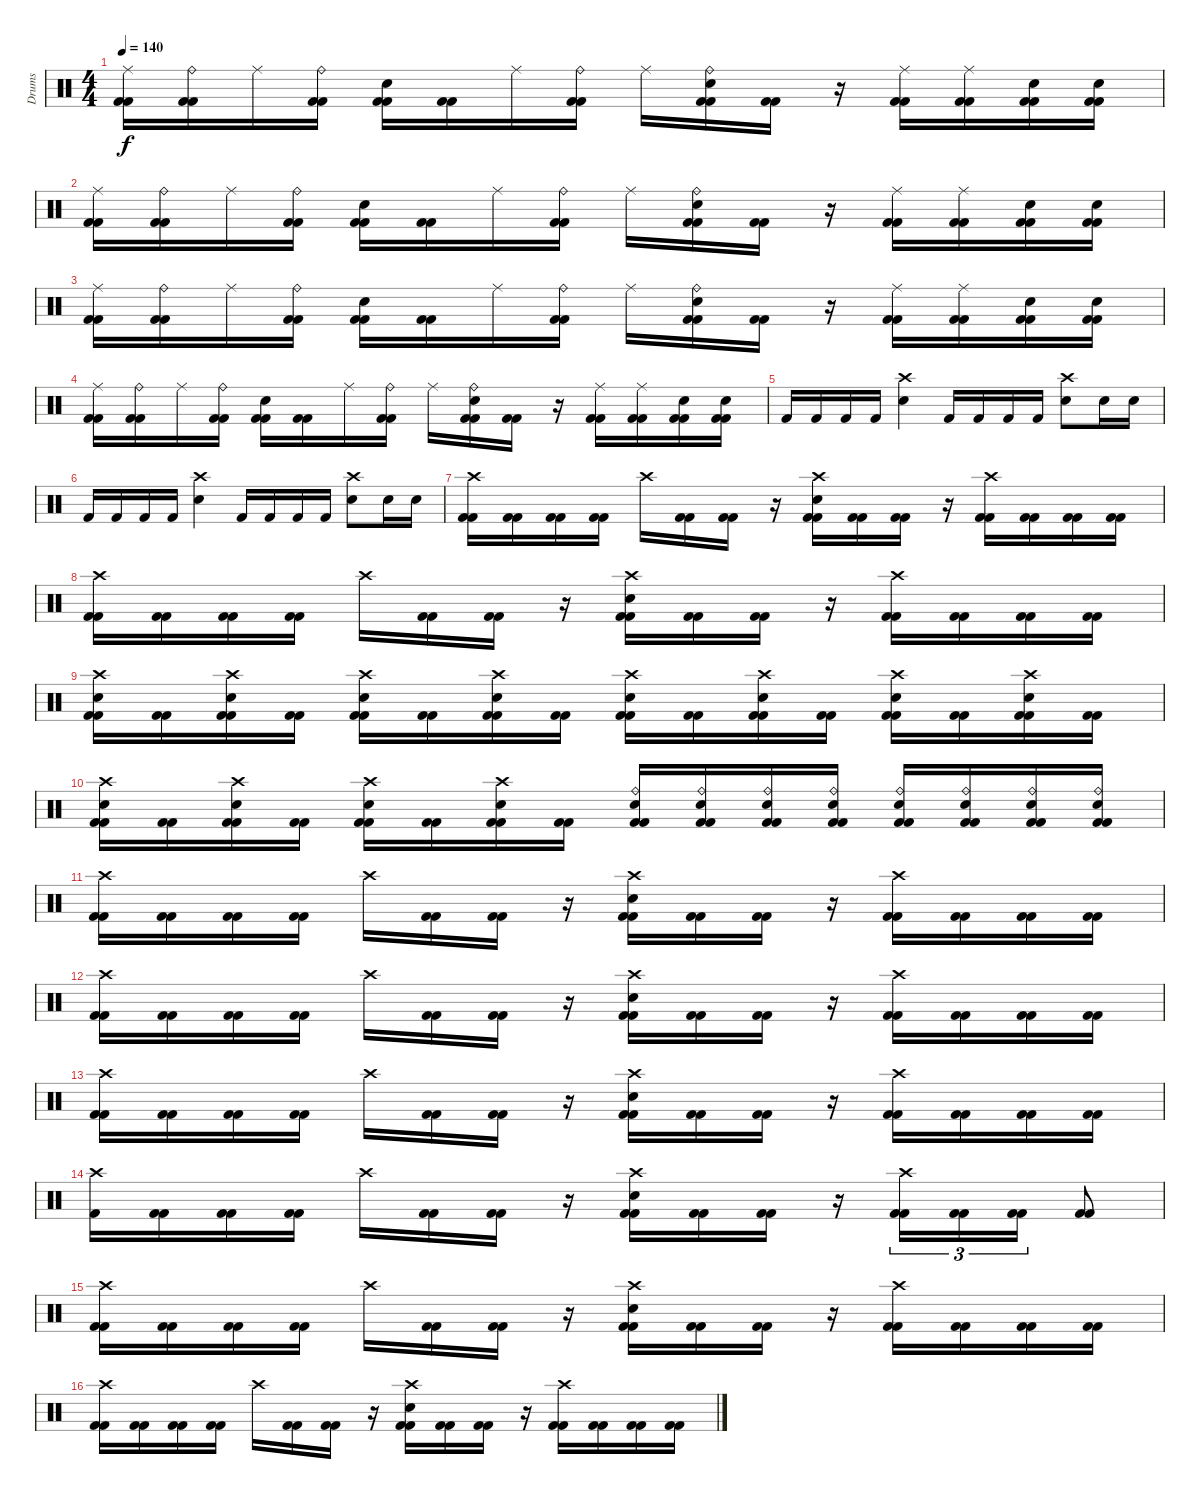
\track ("Drums" "Drums") {instrument percussion}
\staff {score}
\articulation defaults
\ts (4 4)
\tempo 140
\clef neutral
\ks c
("Kick (hit) 2" "Ride (middle)" "Kick (hit) 2").16{dy f} ("Kick (hit) 2" "Ride (bell)" "Kick (hit) 2").16 "Ride (middle)".16 ("Kick (hit) 2" "Ride (bell)" "Kick (hit) 2").16 ("Kick (hit) 2" "Electric Snare (hit)" "Kick (hit) 2").16 ("Kick (hit) 2" "Kick (hit) 2").16 "Ride (middle)".16 ("Kick (hit) 2" "Ride (bell)" "Kick (hit) 2").16 "Ride (middle)".16 ("Kick (hit) 2" "Ride (bell)" "Electric Snare (hit)" "Kick (hit) 2").16 ("Kick (hit) 2" "Kick (hit) 2").16 r.16 ("Kick (hit) 2" "Ride (middle)" "Kick (hit) 2").16 ("Kick (hit) 2" "Ride (middle)" "Kick (hit) 2").16 ("Kick (hit) 2" "Electric Snare (hit)" "Kick (hit) 2").16 ("Kick (hit) 2" "Electric Snare (hit)" "Kick (hit) 2").16 |
("Kick (hit) 2" "Ride (middle)" "Kick (hit) 2").16 ("Kick (hit) 2" "Ride (bell)" "Kick (hit) 2").16 "Ride (middle)".16 ("Kick (hit) 2" "Ride (bell)" "Kick (hit) 2").16 ("Kick (hit) 2" "Electric Snare (hit)" "Kick (hit) 2").16 ("Kick (hit) 2" "Kick (hit) 2").16 "Ride (middle)".16 ("Kick (hit) 2" "Ride (bell)" "Kick (hit) 2").16 "Ride (middle)".16 ("Kick (hit) 2" "Ride (bell)" "Electric Snare (hit)" "Kick (hit) 2").16 ("Kick (hit) 2" "Kick (hit) 2").16 r.16 ("Kick (hit) 2" "Ride (middle)" "Kick (hit) 2").16 ("Kick (hit) 2" "Ride (middle)" "Kick (hit) 2").16 ("Kick (hit) 2" "Electric Snare (hit)" "Kick (hit) 2").16 ("Kick (hit) 2" "Electric Snare (hit)" "Kick (hit) 2").16 |
("Kick (hit) 2" "Ride (middle)" "Kick (hit) 2").16 ("Kick (hit) 2" "Ride (bell)" "Kick (hit) 2").16 "Ride (middle)".16 ("Kick (hit) 2" "Ride (bell)" "Kick (hit) 2").16 ("Kick (hit) 2" "Electric Snare (hit)" "Kick (hit) 2").16 ("Kick (hit) 2" "Kick (hit) 2").16 "Ride (middle)".16 ("Kick (hit) 2" "Ride (bell)" "Kick (hit) 2").16 "Ride (middle)".16 ("Kick (hit) 2" "Ride (bell)" "Electric Snare (hit)" "Kick (hit) 2").16 ("Kick (hit) 2" "Kick (hit) 2").16 r.16 ("Kick (hit) 2" "Ride (middle)" "Kick (hit) 2").16 ("Kick (hit) 2" "Ride (middle)" "Kick (hit) 2").16 ("Kick (hit) 2" "Electric Snare (hit)" "Kick (hit) 2").16 ("Kick (hit) 2" "Electric Snare (hit)" "Kick (hit) 2").16 |
("Kick (hit) 2" "Ride (middle)" "Kick (hit) 2").16 ("Kick (hit) 2" "Ride (bell)" "Kick (hit) 2").16 "Ride (middle)".16 ("Kick (hit) 2" "Ride (bell)" "Kick (hit) 2").16 ("Kick (hit) 2" "Electric Snare (hit)" "Kick (hit) 2").16 ("Kick (hit) 2" "Kick (hit) 2").16 "Ride (middle)".16 ("Kick (hit) 2" "Ride (bell)" "Kick (hit) 2").16 "Ride (middle)".16 ("Kick (hit) 2" "Ride (bell)" "Electric Snare (hit)" "Kick (hit) 2").16 ("Kick (hit) 2" "Kick (hit) 2").16 r.16 ("Kick (hit) 2" "Ride (middle)" "Kick (hit) 2").16 ("Kick (hit) 2" "Ride (middle)" "Kick (hit) 2").16 ("Kick (hit) 2" "Electric Snare (hit)" "Kick (hit) 2").16 ("Kick (hit) 2" "Electric Snare (hit)" "Kick (hit) 2").16 |
"Kick (hit) 2".16 "Kick (hit) 2".16 "Kick (hit) 2".16 "Kick (hit) 2".16 ("Crash high (hit)" "Electric Snare (hit)").4 "Kick (hit) 2".16 "Kick (hit) 2".16 "Kick (hit) 2".16 "Kick (hit) 2".16 ("Crash high (hit)" "Electric Snare (hit)").8 "Electric Snare (hit)".16 "Electric Snare (hit)".16 |
"Kick (hit) 2".16 "Kick (hit) 2".16 "Kick (hit) 2".16 "Kick (hit) 2".16 ("Crash high (hit)" "Electric Snare (hit)").4 "Kick (hit) 2".16 "Kick (hit) 2".16 "Kick (hit) 2".16 "Kick (hit) 2".16 ("Crash high (hit)" "Electric Snare (hit)").8 "Electric Snare (hit)".16 "Electric Snare (hit)".16 |
("Kick (hit) 2" "Crash high (hit)" "Kick (hit) 2").16 ("Kick (hit) 2" "Kick (hit) 2").16 ("Kick (hit) 2" "Kick (hit) 2").16 ("Kick (hit) 2" "Kick (hit) 2").16 "Crash high (hit)".16 ("Kick (hit) 2" "Kick (hit) 2").16 ("Kick (hit) 2" "Kick (hit) 2").16 r.16 ("Kick (hit) 2" "Crash high (hit)" "Electric Snare (hit)" "Kick (hit) 2").16 ("Kick (hit) 2" "Kick (hit) 2").16 ("Kick (hit) 2" "Kick (hit) 2").16 r.16 ("Kick (hit) 2" "Crash high (hit)" "Kick (hit) 2").16 ("Kick (hit) 2" "Kick (hit) 2").16 ("Kick (hit) 2" "Kick (hit) 2").16 ("Kick (hit) 2" "Kick (hit) 2").16 |
("Kick (hit) 2" "Crash high (hit)" "Kick (hit) 2").16 ("Kick (hit) 2" "Kick (hit) 2").16 ("Kick (hit) 2" "Kick (hit) 2").16 ("Kick (hit) 2" "Kick (hit) 2").16 "Crash high (hit)".16 ("Kick (hit) 2" "Kick (hit) 2").16 ("Kick (hit) 2" "Kick (hit) 2").16 r.16 ("Kick (hit) 2" "Crash high (hit)" "Electric Snare (hit)" "Kick (hit) 2").16 ("Kick (hit) 2" "Kick (hit) 2").16 ("Kick (hit) 2" "Kick (hit) 2").16 r.16 ("Kick (hit) 2" "Crash high (hit)" "Kick (hit) 2").16 ("Kick (hit) 2" "Kick (hit) 2").16 ("Kick (hit) 2" "Kick (hit) 2").16 ("Kick (hit) 2" "Kick (hit) 2").16 |
("Kick (hit) 2" "Crash high (hit)" "Electric Snare (hit)" "Kick (hit) 2").16 ("Kick (hit) 2" "Kick (hit) 2").16 ("Kick (hit) 2" "Crash high (hit)" "Electric Snare (hit)" "Kick (hit) 2").16 ("Kick (hit) 2" "Kick (hit) 2").16 ("Kick (hit) 2" "Crash high (hit)" "Electric Snare (hit)" "Kick (hit) 2").16 ("Kick (hit) 2" "Kick (hit) 2").16 ("Kick (hit) 2" "Crash high (hit)" "Electric Snare (hit)" "Kick (hit) 2").16 ("Kick (hit) 2" "Kick (hit) 2").16 ("Kick (hit) 2" "Crash high (hit)" "Electric Snare (hit)" "Kick (hit) 2").16 ("Kick (hit) 2" "Kick (hit) 2").16 ("Kick (hit) 2" "Crash high (hit)" "Electric Snare (hit)" "Kick (hit) 2").16 ("Kick (hit) 2" "Kick (hit) 2").16 ("Kick (hit) 2" "Crash high (hit)" "Electric Snare (hit)" "Kick (hit) 2").16 ("Kick (hit) 2" "Kick (hit) 2").16 ("Kick (hit) 2" "Crash high (hit)" "Electric Snare (hit)" "Kick (hit) 2").16 ("Kick (hit) 2" "Kick (hit) 2").16 |
("Kick (hit) 2" "Crash high (hit)" "Electric Snare (hit)" "Kick (hit) 2").16 ("Kick (hit) 2" "Kick (hit) 2").16 ("Kick (hit) 2" "Crash high (hit)" "Electric Snare (hit)" "Kick (hit) 2").16 ("Kick (hit) 2" "Kick (hit) 2").16 ("Kick (hit) 2" "Crash high (hit)" "Electric Snare (hit)" "Kick (hit) 2").16 ("Kick (hit) 2" "Kick (hit) 2").16 ("Kick (hit) 2" "Crash high (hit)" "Electric Snare (hit)" "Kick (hit) 2").16 ("Kick (hit) 2" "Kick (hit) 2").16 ("Kick (hit) 2" "Ride (bell)" "Electric Snare (hit)" "Kick (hit) 2").16 ("Kick (hit) 2" "Ride (bell)" "Electric Snare (hit)" "Kick (hit) 2").16 ("Kick (hit) 2" "Ride (bell)" "Electric Snare (hit)" "Kick (hit) 2").16 ("Kick (hit) 2" "Ride (bell)" "Electric Snare (hit)" "Kick (hit) 2").16 ("Kick (hit) 2" "Ride (bell)" "Electric Snare (hit)" "Kick (hit) 2").16 ("Kick (hit) 2" "Ride (bell)" "Electric Snare (hit)" "Kick (hit) 2").16 ("Kick (hit) 2" "Ride (bell)" "Electric Snare (hit)" "Kick (hit) 2").16 ("Kick (hit) 2" "Ride (bell)" "Electric Snare (hit)" "Kick (hit) 2").16 |
("Kick (hit) 2" "Crash high (hit)" "Kick (hit) 2").16 ("Kick (hit) 2" "Kick (hit) 2").16 ("Kick (hit) 2" "Kick (hit) 2").16 ("Kick (hit) 2" "Kick (hit) 2").16 "Crash high (hit)".16 ("Kick (hit) 2" "Kick (hit) 2").16 ("Kick (hit) 2" "Kick (hit) 2").16 r.16 ("Kick (hit) 2" "Crash high (hit)" "Electric Snare (hit)" "Kick (hit) 2").16 ("Kick (hit) 2" "Kick (hit) 2").16 ("Kick (hit) 2" "Kick (hit) 2").16 r.16 ("Kick (hit) 2" "Crash high (hit)" "Kick (hit) 2").16 ("Kick (hit) 2" "Kick (hit) 2").16 ("Kick (hit) 2" "Kick (hit) 2").16 ("Kick (hit) 2" "Kick (hit) 2").16 |
("Kick (hit) 2" "Crash high (hit)" "Kick (hit) 2").16 ("Kick (hit) 2" "Kick (hit) 2").16 ("Kick (hit) 2" "Kick (hit) 2").16 ("Kick (hit) 2" "Kick (hit) 2").16 "Crash high (hit)".16 ("Kick (hit) 2" "Kick (hit) 2").16 ("Kick (hit) 2" "Kick (hit) 2").16 r.16 ("Kick (hit) 2" "Crash high (hit)" "Electric Snare (hit)" "Kick (hit) 2").16 ("Kick (hit) 2" "Kick (hit) 2").16 ("Kick (hit) 2" "Kick (hit) 2").16 r.16 ("Kick (hit) 2" "Crash high (hit)" "Kick (hit) 2").16 ("Kick (hit) 2" "Kick (hit) 2").16 ("Kick (hit) 2" "Kick (hit) 2").16 ("Kick (hit) 2" "Kick (hit) 2").16 |
("Kick (hit) 2" "Crash high (hit)" "Kick (hit) 2").16 ("Kick (hit) 2" "Kick (hit) 2").16 ("Kick (hit) 2" "Kick (hit) 2").16 ("Kick (hit) 2" "Kick (hit) 2").16 "Crash high (hit)".16 ("Kick (hit) 2" "Kick (hit) 2").16 ("Kick (hit) 2" "Kick (hit) 2").16 r.16 ("Kick (hit) 2" "Crash high (hit)" "Electric Snare (hit)" "Kick (hit) 2").16 ("Kick (hit) 2" "Kick (hit) 2").16 ("Kick (hit) 2" "Kick (hit) 2").16 r.16 ("Kick (hit) 2" "Crash high (hit)" "Kick (hit) 2").16 ("Kick (hit) 2" "Kick (hit) 2").16 ("Kick (hit) 2" "Kick (hit) 2").16 ("Kick (hit) 2" "Kick (hit) 2").16 |
("Crash high (hit)" "Kick (hit) 2").16 ("Kick (hit) 2" "Kick (hit) 2").16 ("Kick (hit) 2" "Kick (hit) 2").16 ("Kick (hit) 2" "Kick (hit) 2").16 "Crash high (hit)".16 ("Kick (hit) 2" "Kick (hit) 2").16 ("Kick (hit) 2" "Kick (hit) 2").16 r.16 ("Kick (hit) 2" "Crash high (hit)" "Electric Snare (hit)" "Kick (hit) 2").16 ("Kick (hit) 2" "Kick (hit) 2").16 ("Kick (hit) 2" "Kick (hit) 2").16 r.16 ("Kick (hit) 2" "Crash high (hit)" "Kick (hit) 2").16{tu (3 2)} ("Kick (hit) 2" "Kick (hit) 2").16{tu (3 2)} ("Kick (hit) 2" "Kick (hit) 2").16{tu (3 2)} ("Kick (hit) 2" "Kick (hit) 2").8 |
("Kick (hit) 2" "Crash high (hit)" "Kick (hit) 2").16 ("Kick (hit) 2" "Kick (hit) 2").16 ("Kick (hit) 2" "Kick (hit) 2").16 ("Kick (hit) 2" "Kick (hit) 2").16 "Crash high (hit)".16 ("Kick (hit) 2" "Kick (hit) 2").16 ("Kick (hit) 2" "Kick (hit) 2").16 r.16 ("Kick (hit) 2" "Crash high (hit)" "Electric Snare (hit)" "Kick (hit) 2").16 ("Kick (hit) 2" "Kick (hit) 2").16 ("Kick (hit) 2" "Kick (hit) 2").16 r.16 ("Kick (hit) 2" "Crash high (hit)" "Kick (hit) 2").16 ("Kick (hit) 2" "Kick (hit) 2").16 ("Kick (hit) 2" "Kick (hit) 2").16 ("Kick (hit) 2" "Kick (hit) 2").16 |
("Kick (hit) 2" "Crash high (hit)" "Kick (hit) 2").16 ("Kick (hit) 2" "Kick (hit) 2").16 ("Kick (hit) 2" "Kick (hit) 2").16 ("Kick (hit) 2" "Kick (hit) 2").16 "Crash high (hit)".16 ("Kick (hit) 2" "Kick (hit) 2").16 ("Kick (hit) 2" "Kick (hit) 2").16 r.16 ("Kick (hit) 2" "Crash high (hit)" "Electric Snare (hit)" "Kick (hit) 2").16 ("Kick (hit) 2" "Kick (hit) 2").16 ("Kick (hit) 2" "Kick (hit) 2").16 r.16 ("Kick (hit) 2" "Crash high (hit)" "Kick (hit) 2").16 ("Kick (hit) 2" "Kick (hit) 2").16 ("Kick (hit) 2" "Kick (hit) 2").16 ("Kick (hit) 2" "Kick (hit) 2").16
